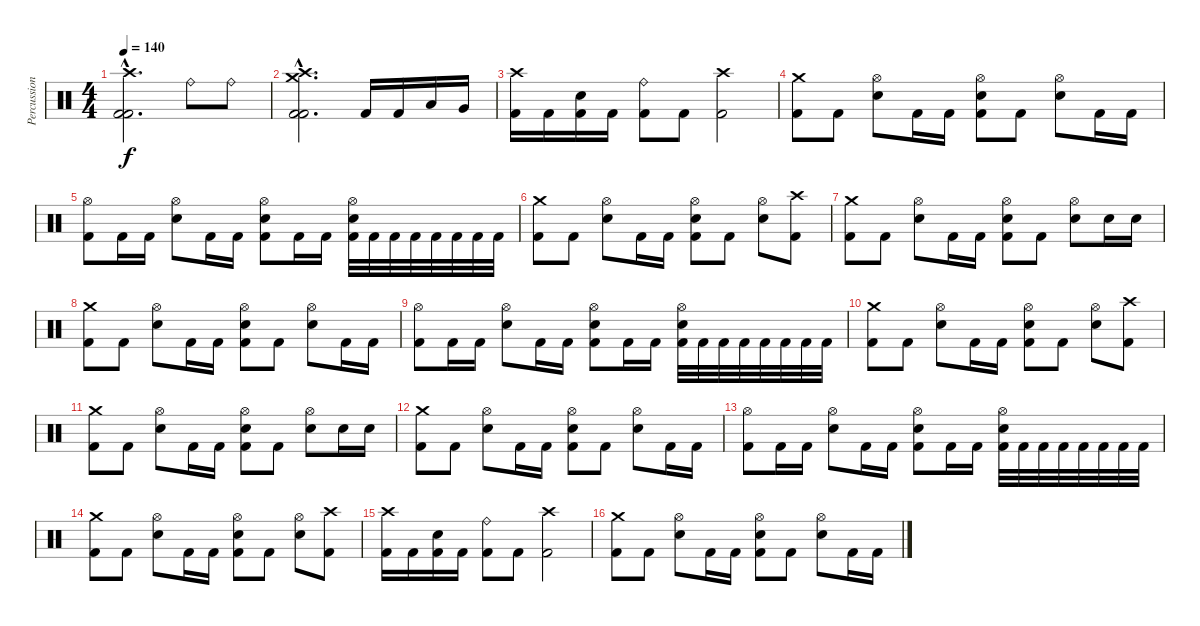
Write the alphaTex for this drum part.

\track ("Percussion" "Percussion") {instrument percussion}
\staff {score}
\articulation defaults
\ts (4 4)
\tempo 140
\clef neutral
\ks c
("Crash high (hit)"{hac} "Kick (hit) 2"{hac} "Kick (hit) 2"{hac}).2{d dy f} "Ride (bell)".8 "Ride (bell)".8 |
("Crash medium (hit)"{hac} "Crash high (hit)"{hac} "Kick (hit) 2"{hac} "Kick (hit) 2"{hac}).2{d} "Kick (hit) 2".16 "Kick (hit) 2".16 "Low Tom (hit)".16 "Very Low Tom (hit)".16 |
("Crash high (hit)" "Kick (hit) 2").16 "Kick (hit) 2".16 ("Electric Snare (hit)" "Kick (hit) 2").16 "Kick (hit) 2".16 ("Ride (bell)" "Kick (hit) 2").8 "Kick (hit) 2".8 ("Crash high (hit)" "Kick (hit) 2").2 |
("Crash medium (hit)" "Kick (hit) 2").8 "Kick (hit) 2".8 ("Hi-Hat (open)" "Electric Snare (hit)").8 "Kick (hit) 2".16 "Kick (hit) 2".16 ("Hi-Hat (open)" "Electric Snare (hit)" "Kick (hit) 2").8 "Kick (hit) 2".8 ("Hi-Hat (open)" "Electric Snare (hit)").8 "Kick (hit) 2".16 "Kick (hit) 2".16 |
("Hi-Hat (open)" "Kick (hit) 2").8 "Kick (hit) 2".16 "Kick (hit) 2".16 ("Hi-Hat (open)" "Electric Snare (hit)").8 "Kick (hit) 2".16 "Kick (hit) 2".16 ("Hi-Hat (open)" "Electric Snare (hit)" "Kick (hit) 2").8 "Kick (hit) 2".16 "Kick (hit) 2".16 ("Hi-Hat (open)" "Electric Snare (hit)" "Kick (hit) 2").32 "Kick (hit) 2".32 "Kick (hit) 2".32 "Kick (hit) 2".32 "Kick (hit) 2".32 "Kick (hit) 2".32 "Kick (hit) 2".32 "Kick (hit) 2".32 |
("Crash medium (hit)" "Kick (hit) 2").8 "Kick (hit) 2".8 ("Hi-Hat (open)" "Electric Snare (hit)").8 "Kick (hit) 2".16 "Kick (hit) 2".16 ("Hi-Hat (open)" "Electric Snare (hit)" "Kick (hit) 2").8 "Kick (hit) 2".8 ("Hi-Hat (open)" "Electric Snare (hit)").8 ("Crash high (hit)" "Kick (hit) 2").8 |
("Crash medium (hit)" "Kick (hit) 2").8 "Kick (hit) 2".8 ("Hi-Hat (open)" "Electric Snare (hit)").8 "Kick (hit) 2".16 "Kick (hit) 2".16 ("Hi-Hat (open)" "Electric Snare (hit)" "Kick (hit) 2").8 "Kick (hit) 2".8 ("Hi-Hat (open)" "Electric Snare (hit)").8 "Electric Snare (hit)".16 "Electric Snare (hit)".16 |
("Crash medium (hit)" "Kick (hit) 2").8 "Kick (hit) 2".8 ("Hi-Hat (open)" "Electric Snare (hit)").8 "Kick (hit) 2".16 "Kick (hit) 2".16 ("Hi-Hat (open)" "Electric Snare (hit)" "Kick (hit) 2").8 "Kick (hit) 2".8 ("Hi-Hat (open)" "Electric Snare (hit)").8 "Kick (hit) 2".16 "Kick (hit) 2".16 |
("Hi-Hat (open)" "Kick (hit) 2").8 "Kick (hit) 2".16 "Kick (hit) 2".16 ("Hi-Hat (open)" "Electric Snare (hit)").8 "Kick (hit) 2".16 "Kick (hit) 2".16 ("Hi-Hat (open)" "Electric Snare (hit)" "Kick (hit) 2").8 "Kick (hit) 2".16 "Kick (hit) 2".16 ("Hi-Hat (open)" "Electric Snare (hit)" "Kick (hit) 2").32 "Kick (hit) 2".32 "Kick (hit) 2".32 "Kick (hit) 2".32 "Kick (hit) 2".32 "Kick (hit) 2".32 "Kick (hit) 2".32 "Kick (hit) 2".32 |
("Crash medium (hit)" "Kick (hit) 2").8 "Kick (hit) 2".8 ("Hi-Hat (open)" "Electric Snare (hit)").8 "Kick (hit) 2".16 "Kick (hit) 2".16 ("Hi-Hat (open)" "Electric Snare (hit)" "Kick (hit) 2").8 "Kick (hit) 2".8 ("Hi-Hat (open)" "Electric Snare (hit)").8 ("Crash high (hit)" "Kick (hit) 2").8 |
("Crash medium (hit)" "Kick (hit) 2").8 "Kick (hit) 2".8 ("Hi-Hat (open)" "Electric Snare (hit)").8 "Kick (hit) 2".16 "Kick (hit) 2".16 ("Hi-Hat (open)" "Electric Snare (hit)" "Kick (hit) 2").8 "Kick (hit) 2".8 ("Hi-Hat (open)" "Electric Snare (hit)").8 "Electric Snare (hit)".16 "Electric Snare (hit)".16 |
("Crash medium (hit)" "Kick (hit) 2").8 "Kick (hit) 2".8 ("Hi-Hat (open)" "Electric Snare (hit)").8 "Kick (hit) 2".16 "Kick (hit) 2".16 ("Hi-Hat (open)" "Electric Snare (hit)" "Kick (hit) 2").8 "Kick (hit) 2".8 ("Hi-Hat (open)" "Electric Snare (hit)").8 "Kick (hit) 2".16 "Kick (hit) 2".16 |
("Hi-Hat (open)" "Kick (hit) 2").8 "Kick (hit) 2".16 "Kick (hit) 2".16 ("Hi-Hat (open)" "Electric Snare (hit)").8 "Kick (hit) 2".16 "Kick (hit) 2".16 ("Hi-Hat (open)" "Electric Snare (hit)" "Kick (hit) 2").8 "Kick (hit) 2".16 "Kick (hit) 2".16 ("Hi-Hat (open)" "Electric Snare (hit)" "Kick (hit) 2").32 "Kick (hit) 2".32 "Kick (hit) 2".32 "Kick (hit) 2".32 "Kick (hit) 2".32 "Kick (hit) 2".32 "Kick (hit) 2".32 "Kick (hit) 2".32 |
("Crash medium (hit)" "Kick (hit) 2").8 "Kick (hit) 2".8 ("Hi-Hat (open)" "Electric Snare (hit)").8 "Kick (hit) 2".16 "Kick (hit) 2".16 ("Hi-Hat (open)" "Electric Snare (hit)" "Kick (hit) 2").8 "Kick (hit) 2".8 ("Hi-Hat (open)" "Electric Snare (hit)").8 ("Crash high (hit)" "Kick (hit) 2").8 |
("Crash high (hit)" "Kick (hit) 2").16 "Kick (hit) 2".16 ("Electric Snare (hit)" "Kick (hit) 2").16 "Kick (hit) 2".16 ("Ride (bell)" "Kick (hit) 2").8 "Kick (hit) 2".8 ("Crash high (hit)" "Kick (hit) 2").2 |
("Crash medium (hit)" "Kick (hit) 2").8 "Kick (hit) 2".8 ("Hi-Hat (open)" "Electric Snare (hit)").8 "Kick (hit) 2".16 "Kick (hit) 2".16 ("Hi-Hat (open)" "Electric Snare (hit)" "Kick (hit) 2").8 "Kick (hit) 2".8 ("Hi-Hat (open)" "Electric Snare (hit)").8 "Kick (hit) 2".16 "Kick (hit) 2".16
